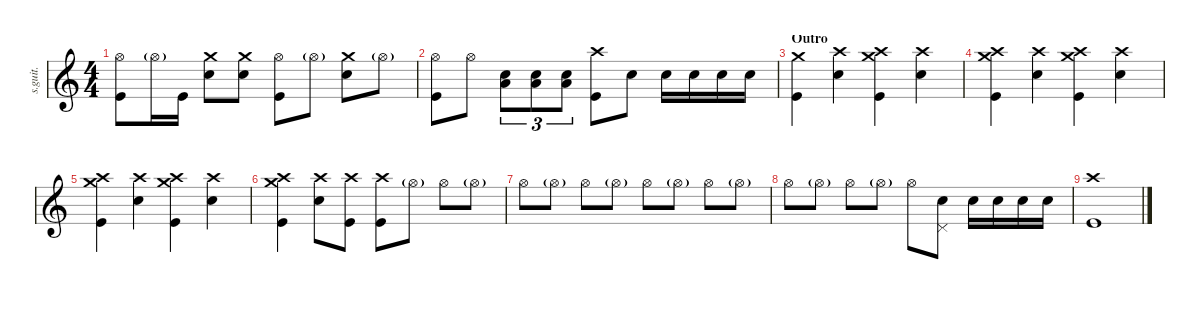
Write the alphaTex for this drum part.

\defaultSystemsLayout 4
\hideDynamics
\bracketExtendMode nobrackets
\track ("Lars Ulrich" "s.guit.") {instrument percussion}
\staff {score}
\articulation defaults
\ts (4 4)
\tempo (90 hide)
\clef g2
\ks c
("Kick (hit)" "Hi-Hat (open)").8{lyrics (0 "") lyrics (1 "") lyrics (2 "") lyrics (3 "") lyrics (4 "") dy f} "Hi-Hat (open)"{g}.16{lyrics (0 "") lyrics (1 "") lyrics (2 "") lyrics (3 "") lyrics (4 "") dy p} "Kick (hit)".16{lyrics (0 "") lyrics (1 "") lyrics (2 "") lyrics (3 "") lyrics (4 "") dy f} ("Crash medium (hit)" "Snare (hit) 2").8{lyrics (0 "") lyrics (1 "") lyrics (2 "") lyrics (3 "") lyrics (4 "")} ("Crash medium (hit)" "Snare (hit) 2").8{lyrics (0 "") lyrics (1 "") lyrics (2 "") lyrics (3 "") lyrics (4 "")} ("Hi-Hat (open)" "Kick (hit)").8{lyrics (0 "") lyrics (1 "") lyrics (2 "") lyrics (3 "") lyrics (4 "")} "Hi-Hat (open)"{g}.8{lyrics (0 "") lyrics (1 "") lyrics (2 "") lyrics (3 "") lyrics (4 "") dy p} ("Crash medium (hit)" "Snare (hit) 2").8{lyrics (0 "") lyrics (1 "") lyrics (2 "") lyrics (3 "") lyrics (4 "") dy f} "Hi-Hat (open)"{g}.8{lyrics (0 "") lyrics (1 "") lyrics (2 "") lyrics (3 "") lyrics (4 "") dy p} |
\tempo (86 hide)
("Hi-Hat (open)" "Kick (hit)").8{lyrics (0 "") lyrics (1 "") lyrics (2 "") lyrics (3 "") lyrics (4 "") dy f} "Hi-Hat (open)".8{lyrics (0 "") lyrics (1 "") lyrics (2 "") lyrics (3 "") lyrics (4 "")} ("Low Floor Tom (hit)" "Snare (hit) 2").8{tu (3 2) lyrics (0 "") lyrics (1 "") lyrics (2 "") lyrics (3 "") lyrics (4 "")} ("Low Floor Tom (hit)" "Snare (hit) 2").8{tu (3 2) lyrics (0 "") lyrics (1 "") lyrics (2 "") lyrics (3 "") lyrics (4 "")} ("Low Floor Tom (hit)" "Snare (hit) 2").8{tu (3 2) lyrics (0 "") lyrics (1 "") lyrics (2 "") lyrics (3 "") lyrics (4 "")} ("Kick (hit)" "Crash high (hit)").8{lyrics (0 "") lyrics (1 "") lyrics (2 "") lyrics (3 "") lyrics (4 "")} "Snare (hit) 2".8{lyrics (0 "") lyrics (1 "") lyrics (2 "") lyrics (3 "") lyrics (4 "")} "Snare (hit) 2".16{lyrics (0 "") lyrics (1 "") lyrics (2 "") lyrics (3 "") lyrics (4 "")} "Snare (hit) 2".16{lyrics (0 "") lyrics (1 "") lyrics (2 "") lyrics (3 "") lyrics (4 "")} "Snare (hit) 2".16{lyrics (0 "") lyrics (1 "") lyrics (2 "") lyrics (3 "") lyrics (4 "")} "Snare (hit) 2".16{lyrics (0 "") lyrics (1 "") lyrics (2 "") lyrics (3 "") lyrics (4 "")} |
\section ("" "Outro")
("Crash medium (hit)" "Kick (hit)").4{lyrics (0 "") lyrics (1 "") lyrics (2 "") lyrics (3 "") lyrics (4 "")} ("Crash high (hit)" "Snare (hit) 2").4{lyrics (0 "") lyrics (1 "") lyrics (2 "") lyrics (3 "") lyrics (4 "")} ("Crash medium (hit)" "Crash high (hit)" "Kick (hit)").4{lyrics (0 "") lyrics (1 "") lyrics (2 "") lyrics (3 "") lyrics (4 "")} ("Crash high (hit)" "Snare (hit) 2").4{lyrics (0 "") lyrics (1 "") lyrics (2 "") lyrics (3 "") lyrics (4 "")} |
\tempo (88 hide)
("Crash medium (hit)" "Crash high (hit)" "Kick (hit)").4{lyrics (0 "") lyrics (1 "") lyrics (2 "") lyrics (3 "") lyrics (4 "")} ("Crash high (hit)" "Snare (hit) 2").4{lyrics (0 "") lyrics (1 "") lyrics (2 "") lyrics (3 "") lyrics (4 "")} ("Crash medium (hit)" "Crash high (hit)" "Kick (hit)").4{lyrics (0 "") lyrics (1 "") lyrics (2 "") lyrics (3 "") lyrics (4 "")} ("Crash high (hit)" "Snare (hit) 2").4{lyrics (0 "") lyrics (1 "") lyrics (2 "") lyrics (3 "") lyrics (4 "")} |
\tempo (89 hide)
("Crash medium (hit)" "Crash high (hit)" "Kick (hit)").4{lyrics (0 "") lyrics (1 "") lyrics (2 "") lyrics (3 "") lyrics (4 "")} ("Crash high (hit)" "Snare (hit) 2").4{lyrics (0 "") lyrics (1 "") lyrics (2 "") lyrics (3 "") lyrics (4 "")} ("Crash medium (hit)" "Crash high (hit)" "Kick (hit)").4{lyrics (0 "") lyrics (1 "") lyrics (2 "") lyrics (3 "") lyrics (4 "")} ("Crash high (hit)" "Snare (hit) 2").4{lyrics (0 "") lyrics (1 "") lyrics (2 "") lyrics (3 "") lyrics (4 "")} |
\tempo (86 hide)
("Crash medium (hit)" "Crash high (hit)" "Kick (hit)").4{lyrics (0 "") lyrics (1 "") lyrics (2 "") lyrics (3 "") lyrics (4 "")} ("Crash high (hit)" "Snare (hit) 2").8{lyrics (0 "") lyrics (1 "") lyrics (2 "") lyrics (3 "") lyrics (4 "")} ("Crash high (hit)" "Kick (hit)").8{lyrics (0 "") lyrics (1 "") lyrics (2 "") lyrics (3 "") lyrics (4 "")} ("Crash high (hit)" "Kick (hit)").8{lyrics (0 "") lyrics (1 "") lyrics (2 "") lyrics (3 "") lyrics (4 "")} "Hi-Hat (open)"{g}.8{lyrics (0 "") lyrics (1 "") lyrics (2 "") lyrics (3 "") lyrics (4 "") dy p} "Hi-Hat (open)".8{lyrics (0 "") lyrics (1 "") lyrics (2 "") lyrics (3 "") lyrics (4 "") dy f} "Hi-Hat (open)"{g}.8{lyrics (0 "") lyrics (1 "") lyrics (2 "") lyrics (3 "") lyrics (4 "") dy p} |
\tempo (87 hide)
"Hi-Hat (open)".8{lyrics (0 "") lyrics (1 "") lyrics (2 "") lyrics (3 "") lyrics (4 "") dy f} "Hi-Hat (open)"{g}.8{lyrics (0 "") lyrics (1 "") lyrics (2 "") lyrics (3 "") lyrics (4 "") dy p} "Hi-Hat (open)".8{lyrics (0 "") lyrics (1 "") lyrics (2 "") lyrics (3 "") lyrics (4 "") dy f} "Hi-Hat (open)"{g}.8{lyrics (0 "") lyrics (1 "") lyrics (2 "") lyrics (3 "") lyrics (4 "") dy p} "Hi-Hat (open)".8{lyrics (0 "") lyrics (1 "") lyrics (2 "") lyrics (3 "") lyrics (4 "") dy f} "Hi-Hat (open)"{g}.8{lyrics (0 "") lyrics (1 "") lyrics (2 "") lyrics (3 "") lyrics (4 "") dy p} "Hi-Hat (open)".8{lyrics (0 "") lyrics (1 "") lyrics (2 "") lyrics (3 "") lyrics (4 "") dy f} "Hi-Hat (open)"{g}.8{lyrics (0 "") lyrics (1 "") lyrics (2 "") lyrics (3 "") lyrics (4 "") dy p} |
\tempo (90 hide)
"Hi-Hat (open)".8{lyrics (0 "") lyrics (1 "") lyrics (2 "") lyrics (3 "") lyrics (4 "") dy f} "Hi-Hat (open)"{g}.8{lyrics (0 "") lyrics (1 "") lyrics (2 "") lyrics (3 "") lyrics (4 "") dy p} "Hi-Hat (open)".8{lyrics (0 "") lyrics (1 "") lyrics (2 "") lyrics (3 "") lyrics (4 "") dy f} "Hi-Hat (open)"{g}.8{lyrics (0 "") lyrics (1 "") lyrics (2 "") lyrics (3 "") lyrics (4 "") dy p} "Hi-Hat (open)".8{lyrics (0 "") lyrics (1 "") lyrics (2 "") lyrics (3 "") lyrics (4 "") dy f} ("Pedal Hi-Hat (hit)" "Snare (hit) 2").8{lyrics (0 "") lyrics (1 "") lyrics (2 "") lyrics (3 "") lyrics (4 "")} "Snare (hit) 2".16{lyrics (0 "") lyrics (1 "") lyrics (2 "") lyrics (3 "") lyrics (4 "")} "Snare (hit) 2".16{lyrics (0 "") lyrics (1 "") lyrics (2 "") lyrics (3 "") lyrics (4 "")} "Snare (hit) 2".16{lyrics (0 "") lyrics (1 "") lyrics (2 "") lyrics (3 "") lyrics (4 "")} "Snare (hit) 2".16{lyrics (0 "") lyrics (1 "") lyrics (2 "") lyrics (3 "") lyrics (4 "")} |
("Crash high (hit)" "Kick (hit)").1{lyrics (0 "") lyrics (1 "") lyrics (2 "") lyrics (3 "") lyrics (4 "")}
